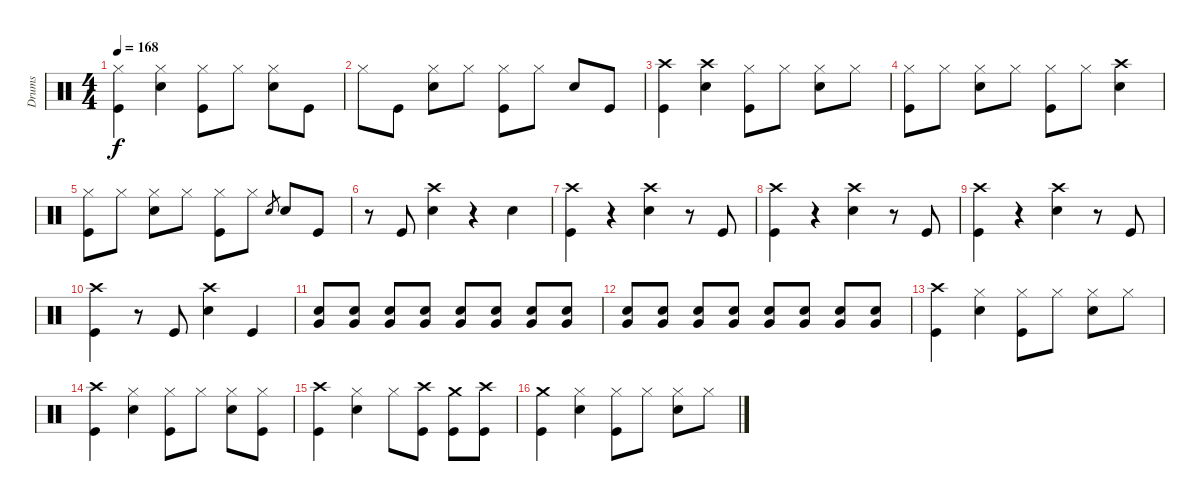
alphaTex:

\track ("Drums" "Drums") {instrument percussion}
\staff {score}
\articulation defaults
\ts (4 4)
\tempo 168
\clef neutral
\ks c
("Hi-Hat (closed)" "Kick (hit)").4{dy f} ("Hi-Hat (closed)" "Electric Snare (hit)").4 ("Hi-Hat (closed)" "Kick (hit)").8 "Hi-Hat (closed)".8 ("Hi-Hat (closed)" "Electric Snare (hit)").8 "Kick (hit)".8 |
"Hi-Hat (closed)".8 "Kick (hit)".8 ("Hi-Hat (closed)" "Electric Snare (hit)").8 "Hi-Hat (closed)".8 ("Hi-Hat (closed)" "Kick (hit)").8 "Hi-Hat (closed)".8 "Electric Snare (hit)".8 "Kick (hit)".8 |
("Crash high (hit)" "Kick (hit)").4 ("Crash high (hit)" "Electric Snare (hit)").4 ("Hi-Hat (closed)" "Kick (hit)").8 "Hi-Hat (closed)".8 ("Hi-Hat (closed)" "Electric Snare (hit)").8 "Hi-Hat (closed)".8 |
("Hi-Hat (closed)" "Kick (hit)").8 "Hi-Hat (closed)".8 ("Hi-Hat (closed)" "Electric Snare (hit)").8 "Hi-Hat (closed)".8 ("Hi-Hat (closed)" "Kick (hit)").8 "Hi-Hat (closed)".8 ("Crash high (hit)" "Electric Snare (hit)").4 |
("Hi-Hat (closed)" "Kick (hit)").8 "Hi-Hat (closed)".8 ("Hi-Hat (closed)" "Electric Snare (hit)").8 "Hi-Hat (closed)".8 ("Hi-Hat (closed)" "Kick (hit)").8 "Hi-Hat (closed)".8 "Electric Snare (hit)".8{gr} "Electric Snare (hit)".8 "Kick (hit)".8 |
r.8 "Kick (hit)".8 ("Crash high (hit)" "Electric Snare (hit)").4 r.4 "Electric Snare (hit)".4 |
("Crash high (hit)" "Kick (hit)").4 r.4 ("Crash high (hit)" "Electric Snare (hit)").4 r.8 "Kick (hit)".8 |
("Crash high (hit)" "Kick (hit)").4 r.4 ("Crash high (hit)" "Electric Snare (hit)").4 r.8 "Kick (hit)".8 |
("Crash high (hit)" "Kick (hit)").4 r.4 ("Crash high (hit)" "Electric Snare (hit)").4 r.8 "Kick (hit)".8 |
("Crash high (hit)" "Kick (hit)").4 r.8 "Kick (hit)".8 ("Crash high (hit)" "Electric Snare (hit)").4 "Kick (hit)".4 |
("Electric Snare (hit)" "Very Low Tom (hit)").8 ("Electric Snare (hit)" "Very Low Tom (hit)").8 ("Electric Snare (hit)" "Very Low Tom (hit)").8 ("Electric Snare (hit)" "Very Low Tom (hit)").8 ("Electric Snare (hit)" "Very Low Tom (hit)").8 ("Electric Snare (hit)" "Very Low Tom (hit)").8 ("Electric Snare (hit)" "Very Low Tom (hit)").8 ("Electric Snare (hit)" "Very Low Tom (hit)").8 |
("Electric Snare (hit)" "Very Low Tom (hit)").8 ("Electric Snare (hit)" "Very Low Tom (hit)").8 ("Electric Snare (hit)" "Very Low Tom (hit)").8 ("Electric Snare (hit)" "Very Low Tom (hit)").8 ("Electric Snare (hit)" "Very Low Tom (hit)").8 ("Electric Snare (hit)" "Very Low Tom (hit)").8 ("Electric Snare (hit)" "Very Low Tom (hit)").8 ("Electric Snare (hit)" "Very Low Tom (hit)").8 |
("Crash high (hit)" "Kick (hit)").4 ("Hi-Hat (closed)" "Electric Snare (hit)").4 ("Hi-Hat (closed)" "Kick (hit)").8 "Hi-Hat (closed)".8 ("Hi-Hat (closed)" "Electric Snare (hit)").8 "Hi-Hat (closed)".8 |
("Crash high (hit)" "Kick (hit)").4 ("Hi-Hat (closed)" "Electric Snare (hit)").4 ("Hi-Hat (closed)" "Kick (hit)").8 "Hi-Hat (closed)".8 ("Hi-Hat (closed)" "Electric Snare (hit)").8 ("Hi-Hat (closed)" "Kick (hit)").8 |
("Crash high (hit)" "Kick (hit)").4 ("Hi-Hat (closed)" "Electric Snare (hit)").4 "Hi-Hat (closed)".8 ("Crash high (hit)" "Kick (hit)").8 ("Crash medium (hit)" "Kick (hit)").8 ("Crash high (hit)" "Kick (hit)").8 |
("Crash medium (hit)" "Kick (hit)").4 ("Hi-Hat (closed)" "Electric Snare (hit)").4 ("Hi-Hat (closed)" "Kick (hit)").8 "Hi-Hat (closed)".8 ("Hi-Hat (closed)" "Electric Snare (hit)").8 "Hi-Hat (closed)".8
